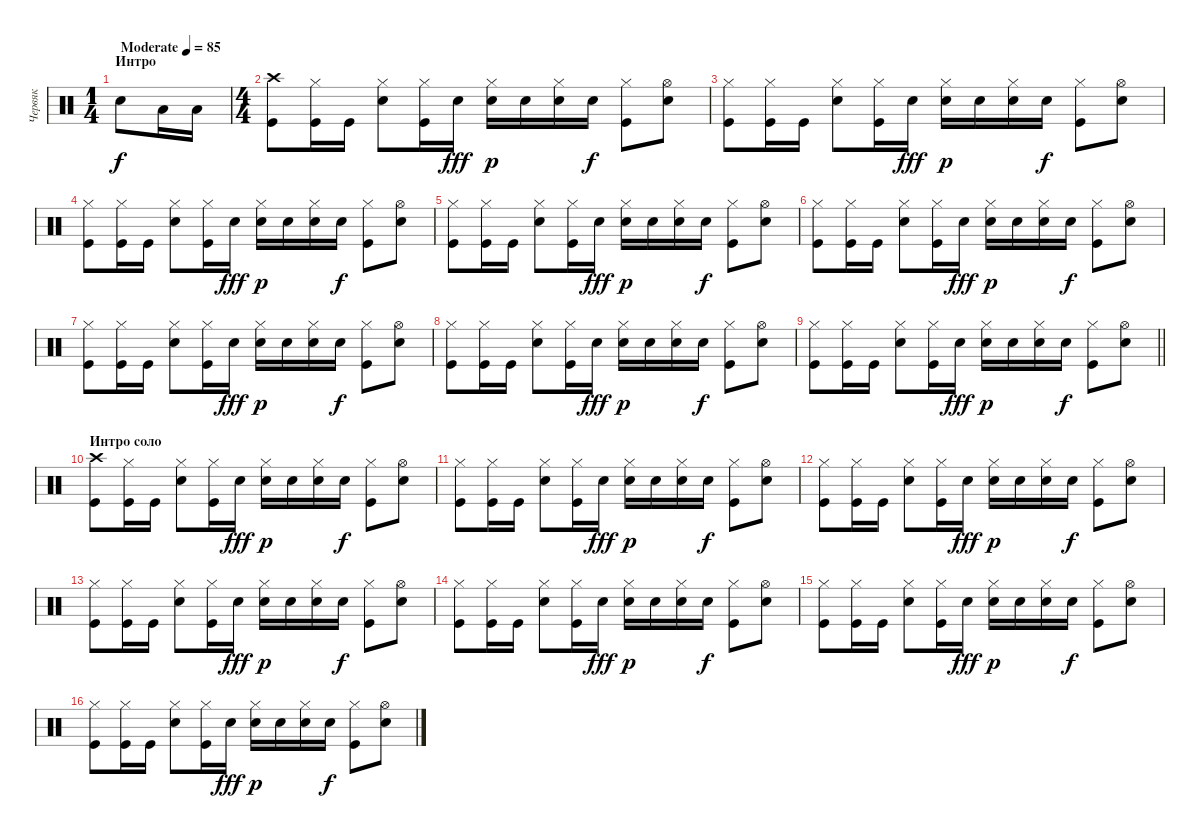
\track ("Червяк" "Червяк") {instrument percussion}
\staff {score}
\articulation defaults
\ts (1 4)
\section ("" "Интро")
\tempo (85 "Moderate")
\clef neutral
\ks c "Electric Snare (hit)".8{dy f} "Low Tom (hit)".16 "Low Tom (hit)".16
|
\ts (4 4)
("Crash high (hit)" "Kick (hit)").8 ("Hi-Hat (closed)" "Kick (hit)").16 "Kick (hit)".16 ("Hi-Hat (closed)" "Electric Snare (hit)").8 ("Hi-Hat (closed)" "Kick (hit)").16 "Snare (hit) 2".16{dy fff} ("Hi-Hat (closed)" "Snare (hit) 2").16{dy p} "Snare (hit) 2".16 ("Hi-Hat (closed)" "Snare (hit) 2").16 "Snare (hit) 2".16{dy f} ("Hi-Hat (closed)" "Kick (hit)").8 ("Hi-Hat (open)" "Electric Snare (hit)").8 |
("Hi-Hat (closed)" "Kick (hit)").8 ("Hi-Hat (closed)" "Kick (hit)").16 "Kick (hit)".16 ("Hi-Hat (closed)" "Electric Snare (hit)").8 ("Hi-Hat (closed)" "Kick (hit)").16 "Snare (hit) 2".16{dy fff} ("Hi-Hat (closed)" "Snare (hit) 2").16{dy p} "Snare (hit) 2".16 ("Hi-Hat (closed)" "Snare (hit) 2").16 "Snare (hit) 2".16{dy f} ("Hi-Hat (closed)" "Kick (hit)").8 ("Hi-Hat (open)" "Electric Snare (hit)").8 |
("Hi-Hat (closed)" "Kick (hit)").8 ("Hi-Hat (closed)" "Kick (hit)").16 "Kick (hit)".16 ("Hi-Hat (closed)" "Electric Snare (hit)").8 ("Hi-Hat (closed)" "Kick (hit)").16 "Snare (hit) 2".16{dy fff} ("Hi-Hat (closed)" "Snare (hit) 2").16{dy p} "Snare (hit) 2".16 ("Hi-Hat (closed)" "Snare (hit) 2").16 "Snare (hit) 2".16{dy f} ("Hi-Hat (closed)" "Kick (hit)").8 ("Hi-Hat (open)" "Electric Snare (hit)").8 |
("Hi-Hat (closed)" "Kick (hit)").8 ("Hi-Hat (closed)" "Kick (hit)").16 "Kick (hit)".16 ("Hi-Hat (closed)" "Electric Snare (hit)").8 ("Hi-Hat (closed)" "Kick (hit)").16 "Snare (hit) 2".16{dy fff} ("Hi-Hat (closed)" "Snare (hit) 2").16{dy p} "Snare (hit) 2".16 ("Hi-Hat (closed)" "Snare (hit) 2").16 "Snare (hit) 2".16{dy f} ("Hi-Hat (closed)" "Kick (hit)").8 ("Hi-Hat (open)" "Electric Snare (hit)").8 |
("Hi-Hat (closed)" "Kick (hit)").8 ("Hi-Hat (closed)" "Kick (hit)").16 "Kick (hit)".16 ("Hi-Hat (closed)" "Electric Snare (hit)").8 ("Hi-Hat (closed)" "Kick (hit)").16 "Snare (hit) 2".16{dy fff} ("Hi-Hat (closed)" "Snare (hit) 2").16{dy p} "Snare (hit) 2".16 ("Hi-Hat (closed)" "Snare (hit) 2").16 "Snare (hit) 2".16{dy f} ("Hi-Hat (closed)" "Kick (hit)").8 ("Hi-Hat (open)" "Electric Snare (hit)").8 |
("Hi-Hat (closed)" "Kick (hit)").8 ("Hi-Hat (closed)" "Kick (hit)").16 "Kick (hit)".16 ("Hi-Hat (closed)" "Electric Snare (hit)").8 ("Hi-Hat (closed)" "Kick (hit)").16 "Snare (hit) 2".16{dy fff} ("Hi-Hat (closed)" "Snare (hit) 2").16{dy p} "Snare (hit) 2".16 ("Hi-Hat (closed)" "Snare (hit) 2").16 "Snare (hit) 2".16{dy f} ("Hi-Hat (closed)" "Kick (hit)").8 ("Hi-Hat (open)" "Electric Snare (hit)").8 |
("Hi-Hat (closed)" "Kick (hit)").8 ("Hi-Hat (closed)" "Kick (hit)").16 "Kick (hit)".16 ("Hi-Hat (closed)" "Electric Snare (hit)").8 ("Hi-Hat (closed)" "Kick (hit)").16 "Snare (hit) 2".16{dy fff} ("Hi-Hat (closed)" "Snare (hit) 2").16{dy p} "Snare (hit) 2".16 ("Hi-Hat (closed)" "Snare (hit) 2").16 "Snare (hit) 2".16{dy f} ("Hi-Hat (closed)" "Kick (hit)").8 ("Hi-Hat (open)" "Electric Snare (hit)").8 |
\barLineRight lightlight
("Hi-Hat (closed)" "Kick (hit)").8 ("Hi-Hat (closed)" "Kick (hit)").16 "Kick (hit)".16 ("Hi-Hat (closed)" "Electric Snare (hit)").8 ("Hi-Hat (closed)" "Kick (hit)").16 "Snare (hit) 2".16{dy fff} ("Hi-Hat (closed)" "Snare (hit) 2").16{dy p} "Snare (hit) 2".16 ("Hi-Hat (closed)" "Snare (hit) 2").16 "Snare (hit) 2".16{dy f} ("Hi-Hat (closed)" "Kick (hit)").8 ("Hi-Hat (open)" "Electric Snare (hit)").8 |
\section ("" "Интро соло")
("Crash high (hit)" "Kick (hit)").8 ("Hi-Hat (closed)" "Kick (hit)").16 "Kick (hit)".16 ("Hi-Hat (closed)" "Electric Snare (hit)").8 ("Hi-Hat (closed)" "Kick (hit)").16 "Snare (hit) 2".16{dy fff} ("Hi-Hat (closed)" "Snare (hit) 2").16{dy p} "Snare (hit) 2".16 ("Hi-Hat (closed)" "Snare (hit) 2").16 "Snare (hit) 2".16{dy f} ("Hi-Hat (closed)" "Kick (hit)").8 ("Hi-Hat (open)" "Electric Snare (hit)").8 |
("Hi-Hat (closed)" "Kick (hit)").8 ("Hi-Hat (closed)" "Kick (hit)").16 "Kick (hit)".16 ("Hi-Hat (closed)" "Electric Snare (hit)").8 ("Hi-Hat (closed)" "Kick (hit)").16 "Snare (hit) 2".16{dy fff} ("Hi-Hat (closed)" "Snare (hit) 2").16{dy p} "Snare (hit) 2".16 ("Hi-Hat (closed)" "Snare (hit) 2").16 "Snare (hit) 2".16{dy f} ("Hi-Hat (closed)" "Kick (hit)").8 ("Hi-Hat (open)" "Electric Snare (hit)").8 |
("Hi-Hat (closed)" "Kick (hit)").8 ("Hi-Hat (closed)" "Kick (hit)").16 "Kick (hit)".16 ("Hi-Hat (closed)" "Electric Snare (hit)").8 ("Hi-Hat (closed)" "Kick (hit)").16 "Snare (hit) 2".16{dy fff} ("Hi-Hat (closed)" "Snare (hit) 2").16{dy p} "Snare (hit) 2".16 ("Hi-Hat (closed)" "Snare (hit) 2").16 "Snare (hit) 2".16{dy f} ("Hi-Hat (closed)" "Kick (hit)").8 ("Hi-Hat (open)" "Electric Snare (hit)").8 |
("Hi-Hat (closed)" "Kick (hit)").8 ("Hi-Hat (closed)" "Kick (hit)").16 "Kick (hit)".16 ("Hi-Hat (closed)" "Electric Snare (hit)").8 ("Hi-Hat (closed)" "Kick (hit)").16 "Snare (hit) 2".16{dy fff} ("Hi-Hat (closed)" "Snare (hit) 2").16{dy p} "Snare (hit) 2".16 ("Hi-Hat (closed)" "Snare (hit) 2").16 "Snare (hit) 2".16{dy f} ("Hi-Hat (closed)" "Kick (hit)").8 ("Hi-Hat (open)" "Electric Snare (hit)").8 |
("Hi-Hat (closed)" "Kick (hit)").8 ("Hi-Hat (closed)" "Kick (hit)").16 "Kick (hit)".16 ("Hi-Hat (closed)" "Electric Snare (hit)").8 ("Hi-Hat (closed)" "Kick (hit)").16 "Snare (hit) 2".16{dy fff} ("Hi-Hat (closed)" "Snare (hit) 2").16{dy p} "Snare (hit) 2".16 ("Hi-Hat (closed)" "Snare (hit) 2").16 "Snare (hit) 2".16{dy f} ("Hi-Hat (closed)" "Kick (hit)").8 ("Hi-Hat (open)" "Electric Snare (hit)").8 |
("Hi-Hat (closed)" "Kick (hit)").8 ("Hi-Hat (closed)" "Kick (hit)").16 "Kick (hit)".16 ("Hi-Hat (closed)" "Electric Snare (hit)").8 ("Hi-Hat (closed)" "Kick (hit)").16 "Snare (hit) 2".16{dy fff} ("Hi-Hat (closed)" "Snare (hit) 2").16{dy p} "Snare (hit) 2".16 ("Hi-Hat (closed)" "Snare (hit) 2").16 "Snare (hit) 2".16{dy f} ("Hi-Hat (closed)" "Kick (hit)").8 ("Hi-Hat (open)" "Electric Snare (hit)").8 |
("Hi-Hat (closed)" "Kick (hit)").8 ("Hi-Hat (closed)" "Kick (hit)").16 "Kick (hit)".16 ("Hi-Hat (closed)" "Electric Snare (hit)").8 ("Hi-Hat (closed)" "Kick (hit)").16 "Snare (hit) 2".16{dy fff} ("Hi-Hat (closed)" "Snare (hit) 2").16{dy p} "Snare (hit) 2".16 ("Hi-Hat (closed)" "Snare (hit) 2").16 "Snare (hit) 2".16{dy f} ("Hi-Hat (closed)" "Kick (hit)").8 ("Hi-Hat (open)" "Electric Snare (hit)").8
